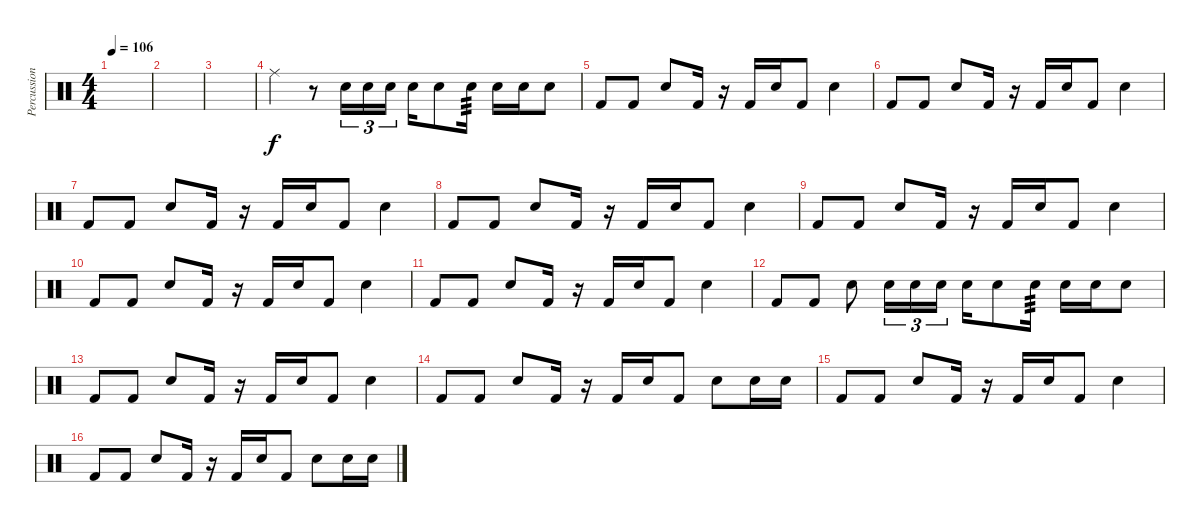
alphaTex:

\track ("Percussion" "Percussion") {instrument percussion}
\staff {score}
\articulation defaults
\ts (4 4)
\tempo 106
\clef neutral
\ks c
|
|
|
"Ride (middle)".4 r.8 "Snare (hit) 2".16{tu (3 2)} "Snare (hit) 2".16{tu (3 2)} "Snare (hit) 2".16{tu (3 2)} "Snare (hit) 2".16 "Snare (hit) 2".8 "Snare (hit) 2".16{tp 3} "Snare (hit) 2".16 "Snare (hit) 2".16 "Snare (hit) 2".8 |
"Kick (hit) 2".8 "Kick (hit) 2".8 "Snare (hit) 2".8 "Kick (hit) 2".16 r.16 "Kick (hit) 2".16 "Snare (hit) 2".16 "Kick (hit) 2".8 "Snare (hit) 2".4 |
"Kick (hit) 2".8 "Kick (hit) 2".8 "Snare (hit) 2".8 "Kick (hit) 2".16 r.16 "Kick (hit) 2".16 "Snare (hit) 2".16 "Kick (hit) 2".8 "Snare (hit) 2".4 |
"Kick (hit) 2".8 "Kick (hit) 2".8 "Snare (hit) 2".8 "Kick (hit) 2".16 r.16 "Kick (hit) 2".16 "Snare (hit) 2".16 "Kick (hit) 2".8 "Snare (hit) 2".4 |
"Kick (hit) 2".8 "Kick (hit) 2".8 "Snare (hit) 2".8 "Kick (hit) 2".16 r.16 "Kick (hit) 2".16 "Snare (hit) 2".16 "Kick (hit) 2".8 "Snare (hit) 2".4 |
"Kick (hit) 2".8 "Kick (hit) 2".8 "Snare (hit) 2".8 "Kick (hit) 2".16 r.16 "Kick (hit) 2".16 "Snare (hit) 2".16 "Kick (hit) 2".8 "Snare (hit) 2".4 |
"Kick (hit) 2".8 "Kick (hit) 2".8 "Snare (hit) 2".8 "Kick (hit) 2".16 r.16 "Kick (hit) 2".16 "Snare (hit) 2".16 "Kick (hit) 2".8 "Snare (hit) 2".4 |
"Kick (hit) 2".8 "Kick (hit) 2".8 "Snare (hit) 2".8 "Kick (hit) 2".16 r.16 "Kick (hit) 2".16 "Snare (hit) 2".16 "Kick (hit) 2".8 "Snare (hit) 2".4 |
"Kick (hit) 2".8 "Kick (hit) 2".8 "Snare (hit) 2".8 "Snare (hit) 2".16{tu (3 2)} "Snare (hit) 2".16{tu (3 2)} "Snare (hit) 2".16{tu (3 2)} "Snare (hit) 2".16 "Snare (hit) 2".8 "Snare (hit) 2".16{tp 3} "Snare (hit) 2".16 "Snare (hit) 2".16 "Snare (hit) 2".8 |
"Kick (hit) 2".8 "Kick (hit) 2".8 "Snare (hit) 2".8 "Kick (hit) 2".16 r.16 "Kick (hit) 2".16 "Snare (hit) 2".16 "Kick (hit) 2".8 "Snare (hit) 2".4 |
"Kick (hit) 2".8 "Kick (hit) 2".8 "Snare (hit) 2".8 "Kick (hit) 2".16 r.16 "Kick (hit) 2".16 "Snare (hit) 2".16 "Kick (hit) 2".8 "Snare (hit) 2".8 "Snare (hit) 2".16 "Snare (hit) 2".16 |
"Kick (hit) 2".8 "Kick (hit) 2".8 "Snare (hit) 2".8 "Kick (hit) 2".16 r.16 "Kick (hit) 2".16 "Snare (hit) 2".16 "Kick (hit) 2".8 "Snare (hit) 2".4 |
"Kick (hit) 2".8 "Kick (hit) 2".8 "Snare (hit) 2".8 "Kick (hit) 2".16 r.16 "Kick (hit) 2".16 "Snare (hit) 2".16 "Kick (hit) 2".8 "Snare (hit) 2".8 "Snare (hit) 2".16 "Snare (hit) 2".16
